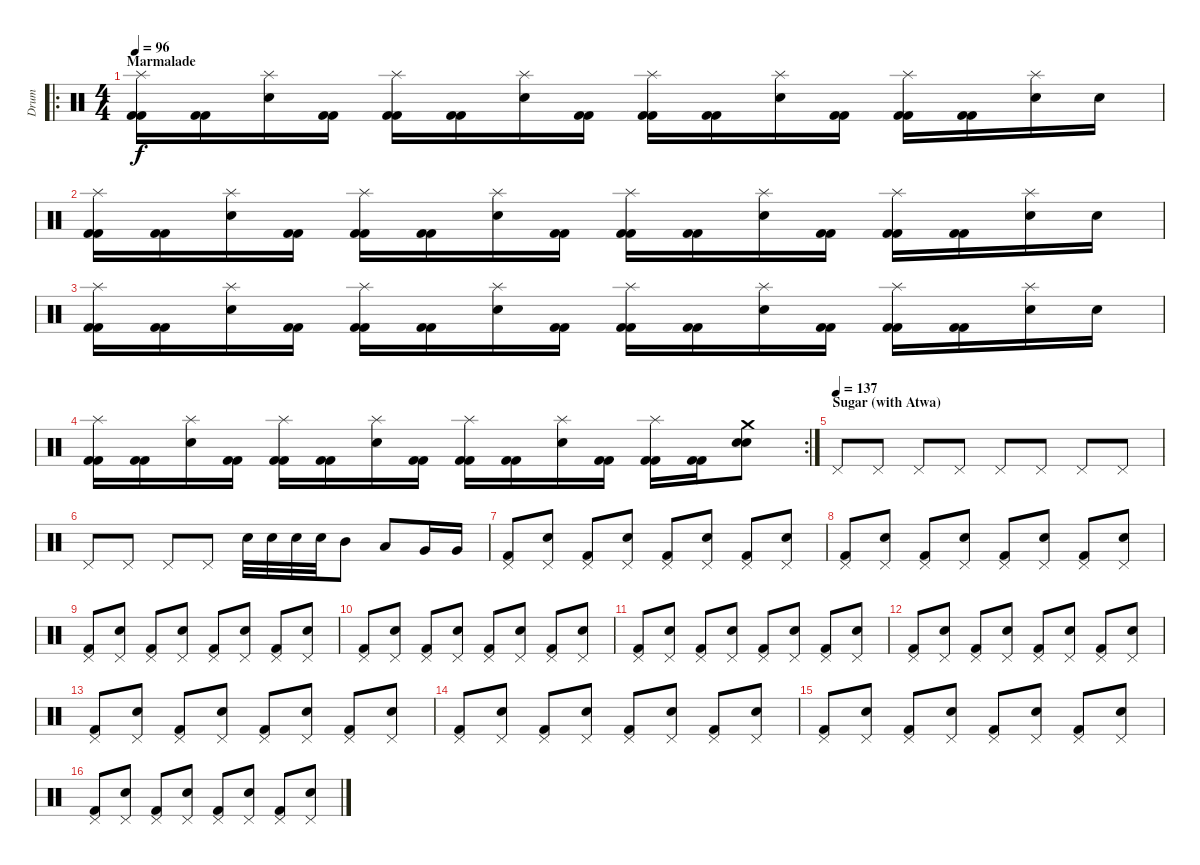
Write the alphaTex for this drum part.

\track ("Drum" "Drum") {instrument percussion}
\staff {score}
\articulation defaults
\ro
\ts (4 4)
\section ("" "Marmalade")
\tempo 96
\clef neutral
\ks c
("Splash (hit)" "Kick (hit) 2" "Kick (hit) 2").16{dy f} ("Kick (hit) 2" "Kick (hit) 2").16 ("Splash (hit)" "Snare (hit) 2").16 ("Kick (hit) 2" "Kick (hit) 2").16 ("Splash (hit)" "Kick (hit) 2" "Kick (hit) 2").16 ("Kick (hit) 2" "Kick (hit) 2").16 ("Splash (hit)" "Snare (hit) 2").16 ("Kick (hit) 2" "Kick (hit) 2").16 ("Splash (hit)" "Kick (hit) 2" "Kick (hit) 2").16 ("Kick (hit) 2" "Kick (hit) 2").16 ("Splash (hit)" "Snare (hit) 2").16 ("Kick (hit) 2" "Kick (hit) 2").16 ("Splash (hit)" "Kick (hit) 2" "Kick (hit) 2").16 ("Kick (hit) 2" "Kick (hit) 2").16 ("Splash (hit)" "Snare (hit) 2").16 "Snare (hit) 2".16 |
("Splash (hit)" "Kick (hit) 2" "Kick (hit) 2").16 ("Kick (hit) 2" "Kick (hit) 2").16 ("Splash (hit)" "Snare (hit) 2").16 ("Kick (hit) 2" "Kick (hit) 2").16 ("Splash (hit)" "Kick (hit) 2" "Kick (hit) 2").16 ("Kick (hit) 2" "Kick (hit) 2").16 ("Splash (hit)" "Snare (hit) 2").16 ("Kick (hit) 2" "Kick (hit) 2").16 ("Splash (hit)" "Kick (hit) 2" "Kick (hit) 2").16 ("Kick (hit) 2" "Kick (hit) 2").16 ("Splash (hit)" "Snare (hit) 2").16 ("Kick (hit) 2" "Kick (hit) 2").16 ("Splash (hit)" "Kick (hit) 2" "Kick (hit) 2").16 ("Kick (hit) 2" "Kick (hit) 2").16 ("Splash (hit)" "Snare (hit) 2").16 "Snare (hit) 2".16 |
("Splash (hit)" "Kick (hit) 2" "Kick (hit) 2").16 ("Kick (hit) 2" "Kick (hit) 2").16 ("Splash (hit)" "Snare (hit) 2").16 ("Kick (hit) 2" "Kick (hit) 2").16 ("Splash (hit)" "Kick (hit) 2" "Kick (hit) 2").16 ("Kick (hit) 2" "Kick (hit) 2").16 ("Splash (hit)" "Snare (hit) 2").16 ("Kick (hit) 2" "Kick (hit) 2").16 ("Splash (hit)" "Kick (hit) 2" "Kick (hit) 2").16 ("Kick (hit) 2" "Kick (hit) 2").16 ("Splash (hit)" "Snare (hit) 2").16 ("Kick (hit) 2" "Kick (hit) 2").16 ("Splash (hit)" "Kick (hit) 2" "Kick (hit) 2").16 ("Kick (hit) 2" "Kick (hit) 2").16 ("Splash (hit)" "Snare (hit) 2").16 "Snare (hit) 2".16 |
\rc 2
("Splash (hit)" "Kick (hit) 2" "Kick (hit) 2").16 ("Kick (hit) 2" "Kick (hit) 2").16 ("Splash (hit)" "Snare (hit) 2").16 ("Kick (hit) 2" "Kick (hit) 2").16 ("Splash (hit)" "Kick (hit) 2" "Kick (hit) 2").16 ("Kick (hit) 2" "Kick (hit) 2").16 ("Splash (hit)" "Snare (hit) 2").16 ("Kick (hit) 2" "Kick (hit) 2").16 ("Splash (hit)" "Kick (hit) 2" "Kick (hit) 2").16 ("Kick (hit) 2" "Kick (hit) 2").16 ("Splash (hit)" "Snare (hit) 2").16 ("Kick (hit) 2" "Kick (hit) 2").16 ("Splash (hit)" "Kick (hit) 2" "Kick (hit) 2").16 ("Kick (hit) 2" "Kick (hit) 2").16 ("Crash medium (hit)" "Snare (hit) 2" "Snare (hit) 2").8 |
\section ("" "Sugar (with Atwa)")
\tempo (137)
"Pedal Hi-Hat (hit)".8 "Pedal Hi-Hat (hit)".8 "Pedal Hi-Hat (hit)".8 "Pedal Hi-Hat (hit)".8 "Pedal Hi-Hat (hit)".8 "Pedal Hi-Hat (hit)".8 "Pedal Hi-Hat (hit)".8 "Pedal Hi-Hat (hit)".8 |
"Pedal Hi-Hat (hit)".8 "Pedal Hi-Hat (hit)".8 "Pedal Hi-Hat (hit)".8 "Pedal Hi-Hat (hit)".8 "Snare (hit) 2".32 "Snare (hit) 2".32 "Snare (hit) 2".32 "Snare (hit) 2".32 "Mid Tom (hit)".8 "Low Tom (hit)".8 "Very Low Tom (hit)".16 "Very Low Tom (hit)".16 |
("Pedal Hi-Hat (hit)" "Kick (hit) 2").8 ("Pedal Hi-Hat (hit)" "Snare (hit) 2").8 ("Pedal Hi-Hat (hit)" "Kick (hit) 2").8 ("Pedal Hi-Hat (hit)" "Snare (hit) 2").8 ("Pedal Hi-Hat (hit)" "Kick (hit) 2").8 ("Pedal Hi-Hat (hit)" "Snare (hit) 2").8 ("Pedal Hi-Hat (hit)" "Kick (hit) 2").8 ("Pedal Hi-Hat (hit)" "Snare (hit) 2").8 |
("Pedal Hi-Hat (hit)" "Kick (hit) 2").8 ("Pedal Hi-Hat (hit)" "Snare (hit) 2").8 ("Pedal Hi-Hat (hit)" "Kick (hit) 2").8 ("Pedal Hi-Hat (hit)" "Snare (hit) 2").8 ("Pedal Hi-Hat (hit)" "Kick (hit) 2").8 ("Pedal Hi-Hat (hit)" "Snare (hit) 2").8 ("Pedal Hi-Hat (hit)" "Kick (hit) 2").8 ("Pedal Hi-Hat (hit)" "Snare (hit) 2").8 |
("Pedal Hi-Hat (hit)" "Kick (hit) 2").8 ("Pedal Hi-Hat (hit)" "Snare (hit) 2").8 ("Pedal Hi-Hat (hit)" "Kick (hit) 2").8 ("Pedal Hi-Hat (hit)" "Snare (hit) 2").8 ("Pedal Hi-Hat (hit)" "Kick (hit) 2").8 ("Pedal Hi-Hat (hit)" "Snare (hit) 2").8 ("Pedal Hi-Hat (hit)" "Kick (hit) 2").8 ("Pedal Hi-Hat (hit)" "Snare (hit) 2").8 |
("Pedal Hi-Hat (hit)" "Kick (hit) 2").8 ("Pedal Hi-Hat (hit)" "Snare (hit) 2").8 ("Pedal Hi-Hat (hit)" "Kick (hit) 2").8 ("Pedal Hi-Hat (hit)" "Snare (hit) 2").8 ("Pedal Hi-Hat (hit)" "Kick (hit) 2").8 ("Pedal Hi-Hat (hit)" "Snare (hit) 2").8 ("Pedal Hi-Hat (hit)" "Kick (hit) 2").8 ("Pedal Hi-Hat (hit)" "Snare (hit) 2").8 |
("Pedal Hi-Hat (hit)" "Kick (hit) 2").8 ("Pedal Hi-Hat (hit)" "Snare (hit) 2").8 ("Pedal Hi-Hat (hit)" "Kick (hit) 2").8 ("Pedal Hi-Hat (hit)" "Snare (hit) 2").8 ("Pedal Hi-Hat (hit)" "Kick (hit) 2").8 ("Pedal Hi-Hat (hit)" "Snare (hit) 2").8 ("Pedal Hi-Hat (hit)" "Kick (hit) 2").8 ("Pedal Hi-Hat (hit)" "Snare (hit) 2").8 |
("Pedal Hi-Hat (hit)" "Kick (hit) 2").8 ("Pedal Hi-Hat (hit)" "Snare (hit) 2").8 ("Pedal Hi-Hat (hit)" "Kick (hit) 2").8 ("Pedal Hi-Hat (hit)" "Snare (hit) 2").8 ("Pedal Hi-Hat (hit)" "Kick (hit) 2").8 ("Pedal Hi-Hat (hit)" "Snare (hit) 2").8 ("Pedal Hi-Hat (hit)" "Kick (hit) 2").8 ("Pedal Hi-Hat (hit)" "Snare (hit) 2").8 |
("Pedal Hi-Hat (hit)" "Kick (hit) 2").8 ("Pedal Hi-Hat (hit)" "Snare (hit) 2").8 ("Pedal Hi-Hat (hit)" "Kick (hit) 2").8 ("Pedal Hi-Hat (hit)" "Snare (hit) 2").8 ("Pedal Hi-Hat (hit)" "Kick (hit) 2").8 ("Pedal Hi-Hat (hit)" "Snare (hit) 2").8 ("Pedal Hi-Hat (hit)" "Kick (hit) 2").8 ("Pedal Hi-Hat (hit)" "Snare (hit) 2").8 |
("Pedal Hi-Hat (hit)" "Kick (hit) 2").8 ("Pedal Hi-Hat (hit)" "Snare (hit) 2").8 ("Pedal Hi-Hat (hit)" "Kick (hit) 2").8 ("Pedal Hi-Hat (hit)" "Snare (hit) 2").8 ("Pedal Hi-Hat (hit)" "Kick (hit) 2").8 ("Pedal Hi-Hat (hit)" "Snare (hit) 2").8 ("Pedal Hi-Hat (hit)" "Kick (hit) 2").8 ("Pedal Hi-Hat (hit)" "Snare (hit) 2").8 |
("Pedal Hi-Hat (hit)" "Kick (hit) 2").8 ("Pedal Hi-Hat (hit)" "Snare (hit) 2").8 ("Pedal Hi-Hat (hit)" "Kick (hit) 2").8 ("Pedal Hi-Hat (hit)" "Snare (hit) 2").8 ("Pedal Hi-Hat (hit)" "Kick (hit) 2").8 ("Pedal Hi-Hat (hit)" "Snare (hit) 2").8 ("Pedal Hi-Hat (hit)" "Kick (hit) 2").8 ("Pedal Hi-Hat (hit)" "Snare (hit) 2").8 |
("Pedal Hi-Hat (hit)" "Kick (hit) 2").8 ("Pedal Hi-Hat (hit)" "Snare (hit) 2").8 ("Pedal Hi-Hat (hit)" "Kick (hit) 2").8 ("Pedal Hi-Hat (hit)" "Snare (hit) 2").8 ("Pedal Hi-Hat (hit)" "Kick (hit) 2").8 ("Pedal Hi-Hat (hit)" "Snare (hit) 2").8 ("Pedal Hi-Hat (hit)" "Kick (hit) 2").8 ("Pedal Hi-Hat (hit)" "Snare (hit) 2").8
